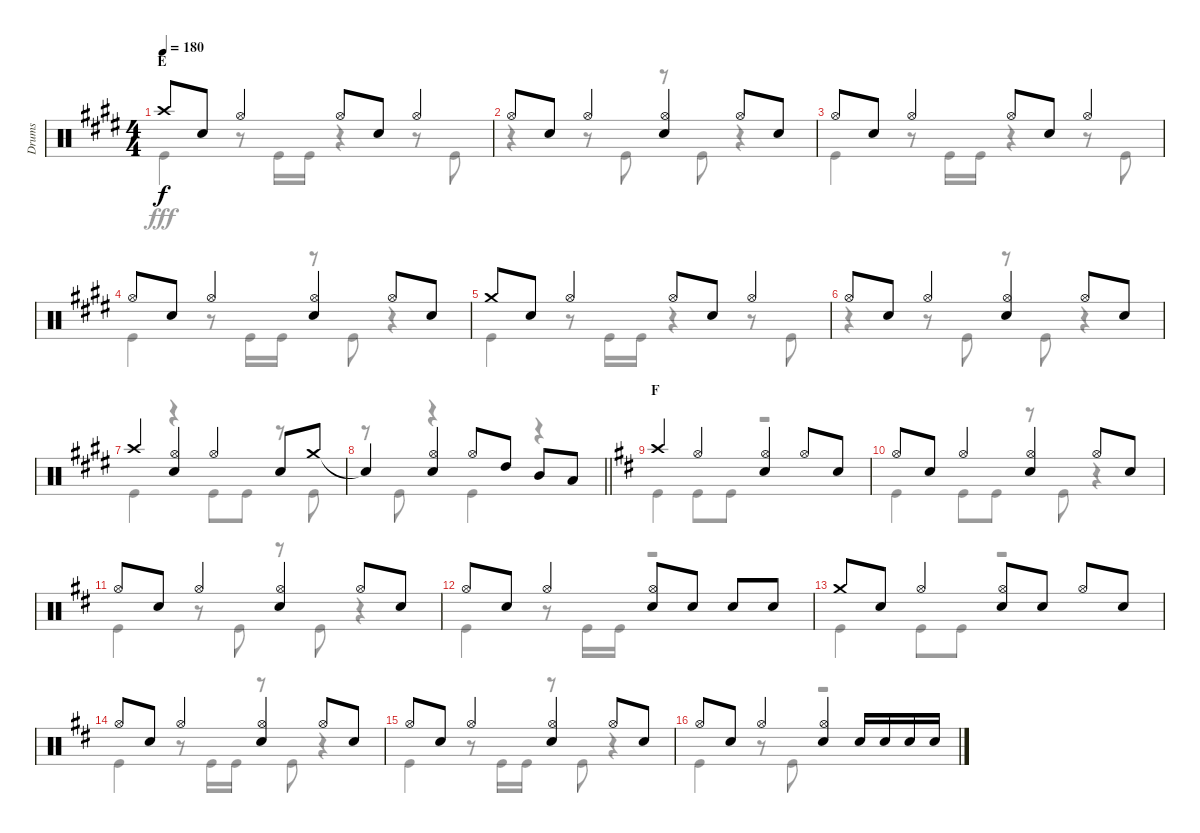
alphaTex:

\track ("Drums" "Drums") {instrument percussion}
\staff {score}
\articulation defaults
\voice
\ts (4 4)
\section ("" "E")
\tempo 180
\clef neutral
\ks e "Crash high (hit)".8{dy f} "Snare (hit) 2".8 "Hi-Hat (open)".4 "Hi-Hat (open)".8 "Snare (hit) 2".8 "Hi-Hat (open)".4
|
"Hi-Hat (open)".8 "Snare (hit) 2".8 "Hi-Hat (open)".4 ("Hi-Hat (open)" "Snare (hit) 2").4 "Hi-Hat (open)".8 "Snare (hit) 2".8 |
"Hi-Hat (open)".8 "Snare (hit) 2".8 "Hi-Hat (open)".4 "Hi-Hat (open)".8 "Snare (hit) 2".8 "Hi-Hat (open)".4 |
"Hi-Hat (open)".8 "Snare (hit) 2".8 "Hi-Hat (open)".4 ("Hi-Hat (open)" "Snare (hit) 2").4 "Hi-Hat (open)".8 "Snare (hit) 2".8 |
"Crash medium (hit)".8 "Snare (hit) 2".8 "Hi-Hat (open)".4 "Hi-Hat (open)".8 "Snare (hit) 2".8 "Hi-Hat (open)".4 |
"Hi-Hat (open)".8 "Snare (hit) 2".8 "Hi-Hat (open)".4 ("Hi-Hat (open)" "Snare (hit) 2").4 "Hi-Hat (open)".8 "Snare (hit) 2".8 |
"Crash high (hit)".4 ("Hi-Hat (open)" "Snare (hit) 2").4 "Hi-Hat (open)".4 "Snare (hit) 2".8 "Crash medium (hit)".8 |
\barLineRight lightlight "Snare (hit)"{t}.4
("Hi-Hat (open)" "Snare (hit) 2").4 "Hi-Hat (open)".8 "High Tom (hit)".8 "Mid Tom (hit)".8 "Low Tom (hit)".8 |
\section ("" "F")
\ks d "Crash high (hit)".4 "Hi-Hat (open)".4
("Hi-Hat (open)" "Snare (hit) 2").4 "Hi-Hat (open)".8 "Snare (hit) 2".8 |
"Hi-Hat (open)".8 "Snare (hit) 2".8 "Hi-Hat (open)".4 ("Hi-Hat (open)" "Snare (hit) 2").4 "Hi-Hat (open)".8 "Snare (hit) 2".8 |
"Hi-Hat (open)".8 "Snare (hit) 2".8 "Hi-Hat (open)".4 ("Hi-Hat (open)" "Snare (hit) 2").4 "Hi-Hat (open)".8 "Snare (hit) 2".8 |
"Hi-Hat (open)".8 "Snare (hit) 2".8 "Hi-Hat (open)".4 ("Hi-Hat (open)" "Snare (hit) 2").8 "Snare (hit) 2".8 "Snare (hit) 2".8 "Snare (hit) 2".8 |
"Crash medium (hit)".8 "Snare (hit) 2".8 "Hi-Hat (open)".4 ("Hi-Hat (open)" "Snare (hit) 2").8 "Snare (hit) 2".8 "Hi-Hat (open)".8 "Snare (hit) 2".8 |
"Hi-Hat (open)".8 "Snare (hit) 2".8 "Hi-Hat (open)".4 ("Hi-Hat (open)" "Snare (hit) 2").4 "Hi-Hat (open)".8 "Snare (hit) 2".8 |
"Hi-Hat (open)".8 "Snare (hit) 2".8 "Hi-Hat (open)".4 ("Hi-Hat (open)" "Snare (hit) 2").4 "Hi-Hat (open)".8 "Snare (hit) 2".8 |
"Hi-Hat (open)".8 "Snare (hit) 2".8 "Hi-Hat (open)".4 ("Hi-Hat (open)" "Snare (hit) 2").4 "Snare (hit) 2".16 "Snare (hit) 2".16 "Snare (hit) 2".16 "Snare (hit) 2".16
\voice
\clef neutral
\ottava regular
\simile none
\ks e "Kick (hit)".4{dy fff}
r.8 "Kick (hit)".16 "Kick (hit)".16 r.4 r.8 "Kick (hit)".8 |
r.4 r.8 "Kick (hit)".8 r.8 "Kick (hit)".8 r.4 |
"Kick (hit)".4 r.8 "Kick (hit)".16 "Kick (hit)".16 r.4 r.8 "Kick (hit)".8 |
"Kick (hit)".4 r.8 "Kick (hit)".16 "Kick (hit)".16 r.8 "Kick (hit)".8 r.4 |
"Kick (hit)".4 r.8 "Kick (hit)".16 "Kick (hit)".16 r.4 r.8 "Kick (hit)".8 |
r.4 r.8 "Kick (hit)".8 r.8 "Kick (hit)".8 r.4 |
"Kick (hit)".4 r.4 "Kick (hit)".8 "Kick (hit)".8 r.8 "Kick (hit)".8 |
\barLineRight lightlight
r.8 "Kick (hit)".8 r.4 "Kick (hit)".4 r.4 |
\ks d "Kick (hit)".4 "Kick (hit)".8 "Kick (hit)".8
r.2 |
"Kick (hit)".4 "Kick (hit)".8 "Kick (hit)".8 r.8 "Kick (hit)".8 r.4 |
"Kick (hit)".4 r.8 "Kick (hit)".8 r.8 "Kick (hit)".8 r.4 |
"Kick (hit)".4 r.8 "Kick (hit)".16 "Kick (hit)".16 r.2 |
"Kick (hit)".4 "Kick (hit)".8 "Kick (hit)".8 r.2 |
"Kick (hit)".4 r.8 "Kick (hit)".16 "Kick (hit)".16 r.8 "Kick (hit)".8 r.4 |
"Kick (hit)".4 r.8 "Kick (hit)".16 "Kick (hit)".16 r.8 "Kick (hit)".8 r.4 |
"Kick (hit)".4 r.8 "Kick (hit)".8 r.2
